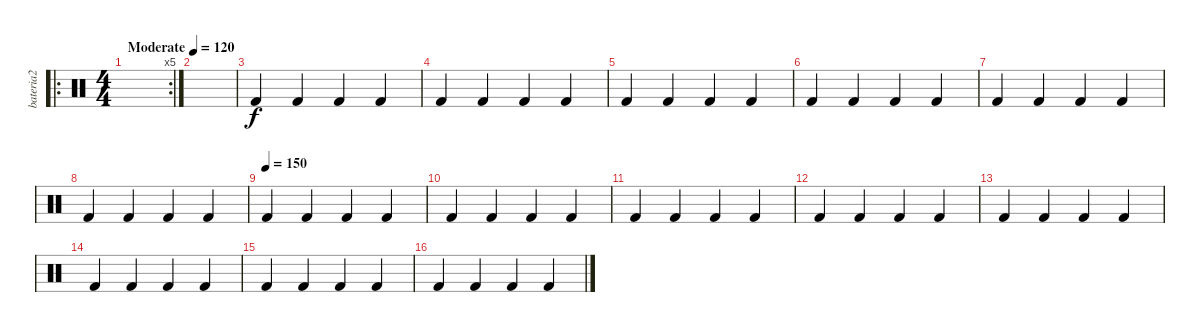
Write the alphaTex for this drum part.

\track ("bateria2" "bateria2") {instrument percussion}
\staff {score}
\articulation defaults
\ro
\rc 5
\ts (4 4)
\tempo (120 "Moderate")
\clef neutral
\ks c
|
|
"Kick (hit) 2".4 "Kick (hit) 2".4 "Kick (hit) 2".4 "Kick (hit) 2".4 |
"Kick (hit) 2".4 "Kick (hit) 2".4 "Kick (hit) 2".4 "Kick (hit) 2".4 |
"Kick (hit) 2".4 "Kick (hit) 2".4 "Kick (hit) 2".4 "Kick (hit) 2".4 |
"Kick (hit) 2".4 "Kick (hit) 2".4 "Kick (hit) 2".4 "Kick (hit) 2".4 |
"Kick (hit) 2".4 "Kick (hit) 2".4 "Kick (hit) 2".4 "Kick (hit) 2".4 |
"Kick (hit) 2".4 "Kick (hit) 2".4 "Kick (hit) 2".4 "Kick (hit) 2".4 |
\tempo (150)
"Kick (hit) 2".4 "Kick (hit) 2".4 "Kick (hit) 2".4 "Kick (hit) 2".4 |
"Kick (hit) 2".4 "Kick (hit) 2".4 "Kick (hit) 2".4 "Kick (hit) 2".4 |
"Kick (hit) 2".4 "Kick (hit) 2".4 "Kick (hit) 2".4 "Kick (hit) 2".4 |
"Kick (hit) 2".4 "Kick (hit) 2".4 "Kick (hit) 2".4 "Kick (hit) 2".4 |
"Kick (hit) 2".4 "Kick (hit) 2".4 "Kick (hit) 2".4 "Kick (hit) 2".4 |
"Kick (hit) 2".4 "Kick (hit) 2".4 "Kick (hit) 2".4 "Kick (hit) 2".4 |
"Kick (hit) 2".4 "Kick (hit) 2".4 "Kick (hit) 2".4 "Kick (hit) 2".4 |
"Kick (hit) 2".4 "Kick (hit) 2".4 "Kick (hit) 2".4 "Kick (hit) 2".4
